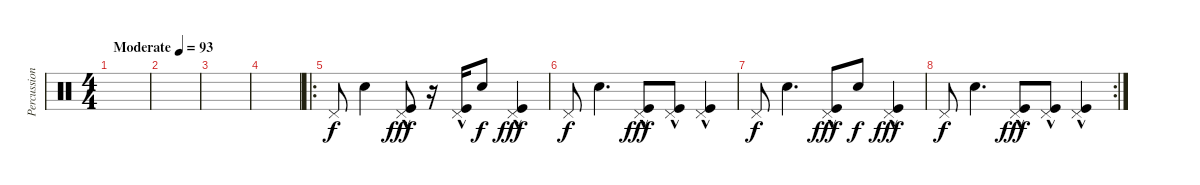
\track ("Percussion" "Percussion") {instrument percussion}
\staff {score}
\articulation defaults
\ts (4 4)
\tempo (93 "Moderate")
\clef neutral
\ks c
|
|
|
|
\ro "Pedal Hi-Hat (hit)".8 "Hand Clap (hit)".4
("Pedal Hi-Hat (hit)" "Kick (hit)"{hac}).8{dy fff} r.16 ("Pedal Hi-Hat (hit)" "Kick (hit)"{hac}).16 "Hand Clap (hit)".8{dy f} ("Pedal Hi-Hat (hit)" "Kick (hit)"{hac}).4{dy fff} |
"Pedal Hi-Hat (hit)".8{dy f} "Hand Clap (hit)".4{d} ("Pedal Hi-Hat (hit)" "Kick (hit)"{hac}).8{dy fff} ("Pedal Hi-Hat (hit)" "Kick (hit)"{hac}).8 ("Pedal Hi-Hat (hit)" "Kick (hit)"{hac}).4 |
"Pedal Hi-Hat (hit)".8{dy f} "Hand Clap (hit)".4{d} ("Pedal Hi-Hat (hit)" "Kick (hit)"{hac}).8{dy fff} "Hand Clap (hit)".8{dy f} ("Pedal Hi-Hat (hit)" "Kick (hit)"{hac}).4{dy fff} |
\rc 2 "Pedal Hi-Hat (hit)".8{dy f} "Hand Clap (hit)".4{d}
("Pedal Hi-Hat (hit)" "Kick (hit)"{hac}).8{dy fff} ("Pedal Hi-Hat (hit)" "Kick (hit)"{hac}).8 ("Pedal Hi-Hat (hit)" "Kick (hit)"{hac}).4
